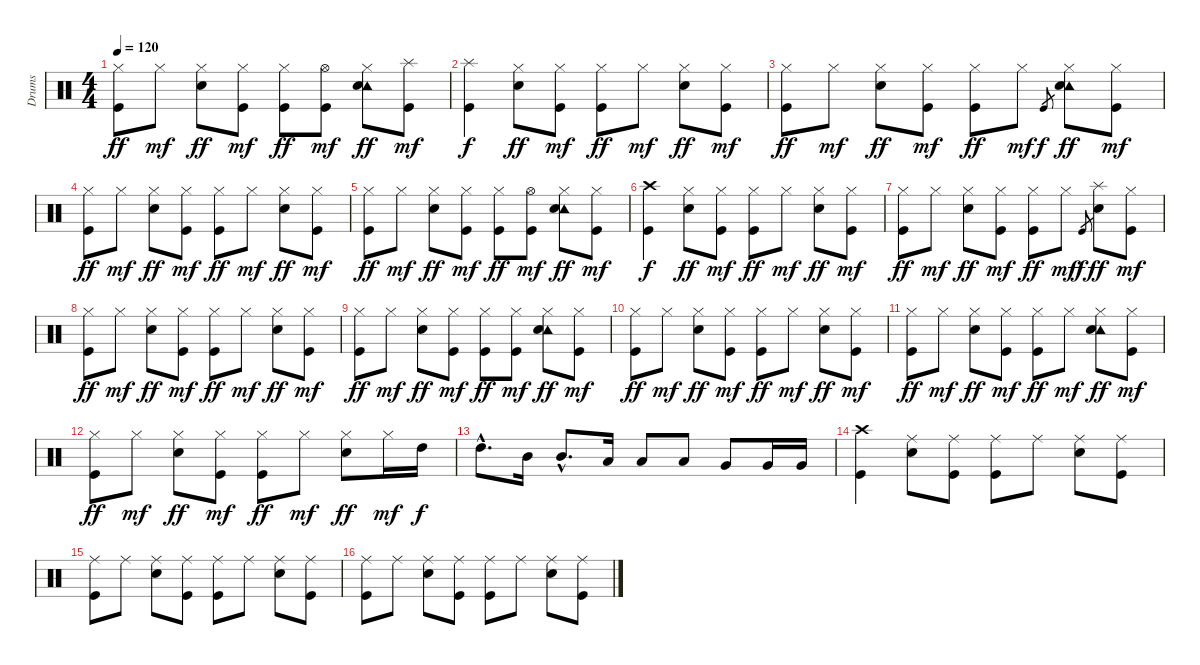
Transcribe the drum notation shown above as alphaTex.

\track ("Drums" "Drums") {instrument percussion}
\staff {score}
\articulation defaults
\ts (4 4)
\tempo 120
\clef neutral
\ks c
("Hi-Hat (closed)" "Kick (hit)").8{dy ff} "Hi-Hat (closed)".8{dy mf} ("Hi-Hat (closed)" "Snare (hit) 2").8{dy ff} ("Hi-Hat (closed)" "Kick (hit)").8{dy mf} ("Hi-Hat (closed)" "Kick (hit)").8{dy ff} ("Hi-Hat (open)" "Kick (hit)").8{dy mf} ("Hi-Hat (closed)" "Tambourine (hit)" "Snare (hit) 2").8{dy ff} ("Splash (hit)" "Kick (hit)").8{dy mf} |
("Splash (hit)" "Kick (hit)").4{dy f} ("Hi-Hat (closed)" "Snare (hit) 2").8{dy ff} ("Hi-Hat (closed)" "Kick (hit)").8{dy mf} ("Hi-Hat (closed)" "Kick (hit)").8{dy ff} "Hi-Hat (closed)".8{dy mf} ("Hi-Hat (closed)" "Snare (hit) 2").8{dy ff} ("Hi-Hat (closed)" "Kick (hit)").8{dy mf} |
("Hi-Hat (closed)" "Kick (hit)").8{dy ff} "Hi-Hat (closed)".8{dy mf} ("Hi-Hat (closed)" "Snare (hit) 2").8{dy ff} ("Hi-Hat (closed)" "Kick (hit)").8{dy mf} ("Hi-Hat (closed)" "Kick (hit)").8{dy ff} "Hi-Hat (closed)".8{dy mf} "Kick (hit)".8{gr dy f} ("Hi-Hat (closed)" "Tambourine (hit)" "Snare (hit) 2").8{dy ff} ("Hi-Hat (closed)" "Kick (hit)").8{dy mf} |
("Hi-Hat (closed)" "Kick (hit)").8{dy ff} "Hi-Hat (closed)".8{dy mf} ("Hi-Hat (closed)" "Snare (hit) 2").8{dy ff} ("Hi-Hat (closed)" "Kick (hit)").8{dy mf} ("Hi-Hat (closed)" "Kick (hit)").8{dy ff} "Hi-Hat (closed)".8{dy mf} ("Hi-Hat (closed)" "Snare (hit) 2").8{dy ff} ("Hi-Hat (closed)" "Kick (hit)").8{dy mf} |
("Hi-Hat (closed)" "Kick (hit)").8{dy ff} "Hi-Hat (closed)".8{dy mf} ("Hi-Hat (closed)" "Snare (hit) 2").8{dy ff} ("Hi-Hat (closed)" "Kick (hit)").8{dy mf} ("Hi-Hat (closed)" "Kick (hit)").8{dy ff} ("Hi-Hat (open)" "Kick (hit)").8{dy mf} ("Hi-Hat (closed)" "Tambourine (hit)" "Snare (hit) 2").8{dy ff} ("Hi-Hat (closed)" "Kick (hit)").8{dy mf} |
("Crash high (hit)" "Kick (hit)").4{dy f} ("Hi-Hat (closed)" "Snare (hit) 2").8{dy ff} ("Hi-Hat (closed)" "Kick (hit)").8{dy mf} ("Hi-Hat (closed)" "Kick (hit)").8{dy ff} "Hi-Hat (closed)".8{dy mf} ("Hi-Hat (closed)" "Snare (hit) 2").8{dy ff} ("Hi-Hat (closed)" "Kick (hit)").8{dy mf} |
("Hi-Hat (closed)" "Kick (hit)").8{dy ff} "Hi-Hat (closed)".8{dy mf} ("Hi-Hat (closed)" "Snare (hit) 2").8{dy ff} ("Hi-Hat (closed)" "Kick (hit)").8{dy mf} ("Hi-Hat (closed)" "Kick (hit)").8{dy ff} "Hi-Hat (closed)".8{dy mf} "Kick (hit)".8{gr dy f} ("Splash (hit)" "Snare (hit) 2").8{dy ff} ("Hi-Hat (closed)" "Kick (hit)").8{dy mf} |
("Hi-Hat (closed)" "Kick (hit)").8{dy ff} "Hi-Hat (closed)".8{dy mf} ("Hi-Hat (closed)" "Snare (hit) 2").8{dy ff} ("Hi-Hat (closed)" "Kick (hit)").8{dy mf} ("Hi-Hat (closed)" "Kick (hit)").8{dy ff} "Hi-Hat (closed)".8{dy mf} ("Hi-Hat (closed)" "Snare (hit) 2").8{dy ff} ("Hi-Hat (closed)" "Kick (hit)").8{dy mf} |
("Hi-Hat (closed)" "Kick (hit)").8{dy ff} "Hi-Hat (closed)".8{dy mf} ("Hi-Hat (closed)" "Snare (hit) 2").8{dy ff} ("Hi-Hat (closed)" "Kick (hit)").8{dy mf} ("Hi-Hat (closed)" "Kick (hit)").8{dy ff} ("Hi-Hat (closed)" "Kick (hit)").8{dy mf} ("Hi-Hat (closed)" "Tambourine (hit)" "Snare (hit) 2").8{dy ff} ("Hi-Hat (closed)" "Kick (hit)").8{dy mf} |
("Hi-Hat (closed)" "Kick (hit)").8{dy ff} "Hi-Hat (closed)".8{dy mf} ("Hi-Hat (closed)" "Snare (hit) 2").8{dy ff} ("Hi-Hat (closed)" "Kick (hit)").8{dy mf} ("Hi-Hat (closed)" "Kick (hit)").8{dy ff} "Hi-Hat (closed)".8{dy mf} ("Hi-Hat (closed)" "Snare (hit) 2").8{dy ff} ("Hi-Hat (closed)" "Kick (hit)").8{dy mf} |
("Hi-Hat (closed)" "Kick (hit)").8{dy ff} "Hi-Hat (closed)".8{dy mf} ("Hi-Hat (closed)" "Snare (hit) 2").8{dy ff} ("Hi-Hat (closed)" "Kick (hit)").8{dy mf} ("Hi-Hat (closed)" "Kick (hit)").8{dy ff} "Hi-Hat (closed)".8{dy mf} ("Hi-Hat (closed)" "Tambourine (hit)" "Snare (hit) 2").8{dy ff} ("Hi-Hat (closed)" "Kick (hit)").8{dy mf} |
("Hi-Hat (closed)" "Kick (hit)").8{dy ff} "Hi-Hat (closed)".8{dy mf} ("Hi-Hat (closed)" "Snare (hit) 2").8{dy ff} ("Hi-Hat (closed)" "Kick (hit)").8{dy mf} ("Hi-Hat (closed)" "Kick (hit)").8{dy ff} "Hi-Hat (closed)".8{dy mf} ("Hi-Hat (closed)" "Snare (hit) 2").8{dy ff} "Hi-Hat (closed)".16{dy mf} "High Tom (hit)".16{dy f} |
"High Tom (hit)"{hac}.8{d} "Mid Tom (hit)".16 "Mid Tom (hit)"{hac}.8{d} "Low Tom (hit)".16 "Low Tom (hit)".8 "Low Tom (hit)".8 "Very Low Tom (hit)".8 "Very Low Tom (hit)".16 "Very Low Tom (hit)".16 |
("Crash high (hit)" "Kick (hit)").4 ("Ride (middle)" "Snare (hit) 2").8 ("Ride (middle)" "Kick (hit)").8 ("Ride (middle)" "Kick (hit)").8 "Ride (middle)".8 ("Ride (middle)" "Snare (hit) 2").8 ("Ride (middle)" "Kick (hit)").8 |
("Ride (middle)" "Kick (hit)").8 "Ride (middle)".8 ("Ride (middle)" "Snare (hit) 2").8 ("Ride (middle)" "Kick (hit)").8 ("Ride (middle)" "Kick (hit)").8 "Ride (middle)".8 ("Ride (middle)" "Snare (hit) 2").8 ("Ride (middle)" "Kick (hit)").8 |
("Ride (middle)" "Kick (hit)").8 "Ride (middle)".8 ("Ride (middle)" "Snare (hit) 2").8 ("Ride (middle)" "Kick (hit)").8 ("Ride (middle)" "Kick (hit)").8 "Ride (middle)".8 ("Ride (middle)" "Snare (hit) 2").8 ("Ride (middle)" "Kick (hit)").8
